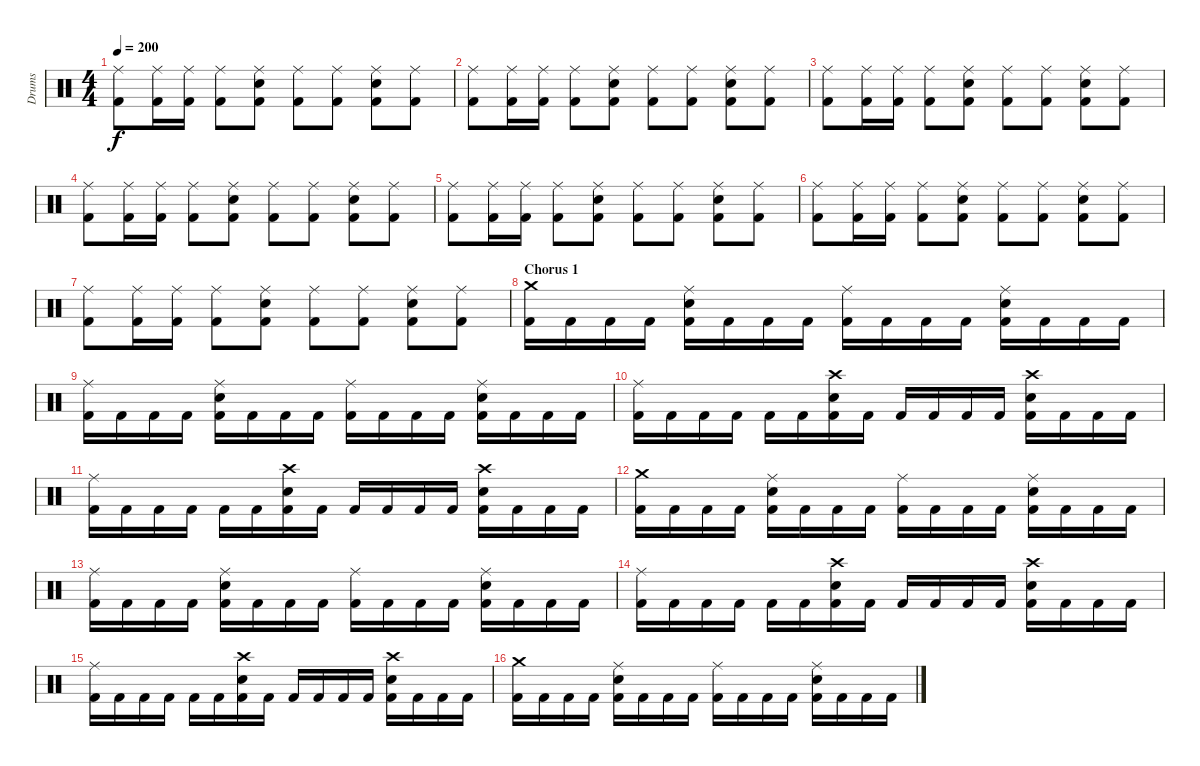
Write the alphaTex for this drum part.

\track ("Drums" "Drums") {instrument percussion}
\staff {score}
\articulation defaults
\ts (4 4)
\tempo 200
\clef neutral
\ks c
("Ride (middle)" "Kick (hit) 2").8{dy f} ("Ride (middle)" "Kick (hit) 2").16 ("Ride (middle)" "Kick (hit) 2").16 ("Ride (middle)" "Kick (hit) 2").8 ("Ride (middle)" "Snare (hit) 2" "Kick (hit) 2").8 ("Ride (middle)" "Kick (hit) 2").8 ("Ride (middle)" "Kick (hit) 2").8 ("Ride (middle)" "Snare (hit) 2" "Kick (hit) 2").8 ("Ride (middle)" "Kick (hit) 2").8 |
("Ride (middle)" "Kick (hit) 2").8 ("Ride (middle)" "Kick (hit) 2").16 ("Ride (middle)" "Kick (hit) 2").16 ("Ride (middle)" "Kick (hit) 2").8 ("Ride (middle)" "Snare (hit) 2" "Kick (hit) 2").8 ("Ride (middle)" "Kick (hit) 2").8 ("Ride (middle)" "Kick (hit) 2").8 ("Ride (middle)" "Snare (hit) 2" "Kick (hit) 2").8 ("Ride (middle)" "Kick (hit) 2").8 |
("Ride (middle)" "Kick (hit) 2").8 ("Ride (middle)" "Kick (hit) 2").16 ("Ride (middle)" "Kick (hit) 2").16 ("Ride (middle)" "Kick (hit) 2").8 ("Ride (middle)" "Snare (hit) 2" "Kick (hit) 2").8 ("Ride (middle)" "Kick (hit) 2").8 ("Ride (middle)" "Kick (hit) 2").8 ("Ride (middle)" "Snare (hit) 2" "Kick (hit) 2").8 ("Ride (middle)" "Kick (hit) 2").8 |
("Ride (middle)" "Kick (hit) 2").8 ("Ride (middle)" "Kick (hit) 2").16 ("Ride (middle)" "Kick (hit) 2").16 ("Ride (middle)" "Kick (hit) 2").8 ("Ride (middle)" "Snare (hit) 2" "Kick (hit) 2").8 ("Ride (middle)" "Kick (hit) 2").8 ("Ride (middle)" "Kick (hit) 2").8 ("Ride (middle)" "Snare (hit) 2" "Kick (hit) 2").8 ("Ride (middle)" "Kick (hit) 2").8 |
("Ride (middle)" "Kick (hit) 2").8 ("Ride (middle)" "Kick (hit) 2").16 ("Ride (middle)" "Kick (hit) 2").16 ("Ride (middle)" "Kick (hit) 2").8 ("Ride (middle)" "Snare (hit) 2" "Kick (hit) 2").8 ("Ride (middle)" "Kick (hit) 2").8 ("Ride (middle)" "Kick (hit) 2").8 ("Ride (middle)" "Snare (hit) 2" "Kick (hit) 2").8 ("Ride (middle)" "Kick (hit) 2").8 |
("Ride (middle)" "Kick (hit) 2").8 ("Ride (middle)" "Kick (hit) 2").16 ("Ride (middle)" "Kick (hit) 2").16 ("Ride (middle)" "Kick (hit) 2").8 ("Ride (middle)" "Snare (hit) 2" "Kick (hit) 2").8 ("Ride (middle)" "Kick (hit) 2").8 ("Ride (middle)" "Kick (hit) 2").8 ("Ride (middle)" "Snare (hit) 2" "Kick (hit) 2").8 ("Ride (middle)" "Kick (hit) 2").8 |
("Ride (middle)" "Kick (hit) 2").8 ("Ride (middle)" "Kick (hit) 2").16 ("Ride (middle)" "Kick (hit) 2").16 ("Ride (middle)" "Kick (hit) 2").8 ("Ride (middle)" "Snare (hit) 2" "Kick (hit) 2").8 ("Ride (middle)" "Kick (hit) 2").8 ("Ride (middle)" "Kick (hit) 2").8 ("Ride (middle)" "Snare (hit) 2" "Kick (hit) 2").8 ("Ride (middle)" "Kick (hit) 2").8 |
\section ("" "Chorus 1")
("Crash medium (hit)" "Kick (hit) 2").16 "Kick (hit) 2".16 "Kick (hit) 2".16 "Kick (hit) 2".16 ("Ride (middle)" "Snare (hit) 2" "Kick (hit) 2").16 "Kick (hit) 2".16 "Kick (hit) 2".16 "Kick (hit) 2".16 ("Ride (middle)" "Kick (hit) 2").16 "Kick (hit) 2".16 "Kick (hit) 2".16 "Kick (hit) 2".16 ("Ride (middle)" "Snare (hit) 2" "Kick (hit) 2").16 "Kick (hit) 2".16 "Kick (hit) 2".16 "Kick (hit) 2".16 |
("Ride (middle)" "Kick (hit) 2").16 "Kick (hit) 2".16 "Kick (hit) 2".16 "Kick (hit) 2".16 ("Ride (middle)" "Snare (hit) 2" "Kick (hit) 2").16 "Kick (hit) 2".16 "Kick (hit) 2".16 "Kick (hit) 2".16 ("Ride (middle)" "Kick (hit) 2").16 "Kick (hit) 2".16 "Kick (hit) 2".16 "Kick (hit) 2".16 ("Ride (middle)" "Snare (hit) 2" "Kick (hit) 2").16 "Kick (hit) 2".16 "Kick (hit) 2".16 "Kick (hit) 2".16 |
("Ride (middle)" "Kick (hit) 2").16 "Kick (hit) 2".16 "Kick (hit) 2".16 "Kick (hit) 2".16 "Kick (hit) 2".16 "Kick (hit) 2".16 ("Crash high (hit)" "Snare (hit) 2" "Kick (hit) 2").16 "Kick (hit) 2".16 "Kick (hit) 2".16 "Kick (hit) 2".16 "Kick (hit) 2".16 "Kick (hit) 2".16 ("Crash high (hit)" "Snare (hit) 2" "Kick (hit) 2").16 "Kick (hit) 2".16 "Kick (hit) 2".16 "Kick (hit) 2".16 |
("Ride (middle)" "Kick (hit) 2").16 "Kick (hit) 2".16 "Kick (hit) 2".16 "Kick (hit) 2".16 "Kick (hit) 2".16 "Kick (hit) 2".16 ("Crash high (hit)" "Snare (hit) 2" "Kick (hit) 2").16 "Kick (hit) 2".16 "Kick (hit) 2".16 "Kick (hit) 2".16 "Kick (hit) 2".16 "Kick (hit) 2".16 ("Crash high (hit)" "Snare (hit) 2" "Kick (hit) 2").16 "Kick (hit) 2".16 "Kick (hit) 2".16 "Kick (hit) 2".16 |
("Crash medium (hit)" "Kick (hit) 2").16 "Kick (hit) 2".16 "Kick (hit) 2".16 "Kick (hit) 2".16 ("Ride (middle)" "Snare (hit) 2" "Kick (hit) 2").16 "Kick (hit) 2".16 "Kick (hit) 2".16 "Kick (hit) 2".16 ("Ride (middle)" "Kick (hit) 2").16 "Kick (hit) 2".16 "Kick (hit) 2".16 "Kick (hit) 2".16 ("Ride (middle)" "Snare (hit) 2" "Kick (hit) 2").16 "Kick (hit) 2".16 "Kick (hit) 2".16 "Kick (hit) 2".16 |
("Ride (middle)" "Kick (hit) 2").16 "Kick (hit) 2".16 "Kick (hit) 2".16 "Kick (hit) 2".16 ("Ride (middle)" "Snare (hit) 2" "Kick (hit) 2").16 "Kick (hit) 2".16 "Kick (hit) 2".16 "Kick (hit) 2".16 ("Ride (middle)" "Kick (hit) 2").16 "Kick (hit) 2".16 "Kick (hit) 2".16 "Kick (hit) 2".16 ("Ride (middle)" "Snare (hit) 2" "Kick (hit) 2").16 "Kick (hit) 2".16 "Kick (hit) 2".16 "Kick (hit) 2".16 |
("Ride (middle)" "Kick (hit) 2").16 "Kick (hit) 2".16 "Kick (hit) 2".16 "Kick (hit) 2".16 "Kick (hit) 2".16 "Kick (hit) 2".16 ("Crash high (hit)" "Snare (hit) 2" "Kick (hit) 2").16 "Kick (hit) 2".16 "Kick (hit) 2".16 "Kick (hit) 2".16 "Kick (hit) 2".16 "Kick (hit) 2".16 ("Crash high (hit)" "Snare (hit) 2" "Kick (hit) 2").16 "Kick (hit) 2".16 "Kick (hit) 2".16 "Kick (hit) 2".16 |
("Ride (middle)" "Kick (hit) 2").16 "Kick (hit) 2".16 "Kick (hit) 2".16 "Kick (hit) 2".16 "Kick (hit) 2".16 "Kick (hit) 2".16 ("Crash high (hit)" "Snare (hit) 2" "Kick (hit) 2").16 "Kick (hit) 2".16 "Kick (hit) 2".16 "Kick (hit) 2".16 "Kick (hit) 2".16 "Kick (hit) 2".16 ("Crash high (hit)" "Snare (hit) 2" "Kick (hit) 2").16 "Kick (hit) 2".16 "Kick (hit) 2".16 "Kick (hit) 2".16 |
("Crash medium (hit)" "Kick (hit) 2").16 "Kick (hit) 2".16 "Kick (hit) 2".16 "Kick (hit) 2".16 ("Ride (middle)" "Snare (hit) 2" "Kick (hit) 2").16 "Kick (hit) 2".16 "Kick (hit) 2".16 "Kick (hit) 2".16 ("Ride (middle)" "Kick (hit) 2").16 "Kick (hit) 2".16 "Kick (hit) 2".16 "Kick (hit) 2".16 ("Ride (middle)" "Snare (hit) 2" "Kick (hit) 2").16 "Kick (hit) 2".16 "Kick (hit) 2".16 "Kick (hit) 2".16
